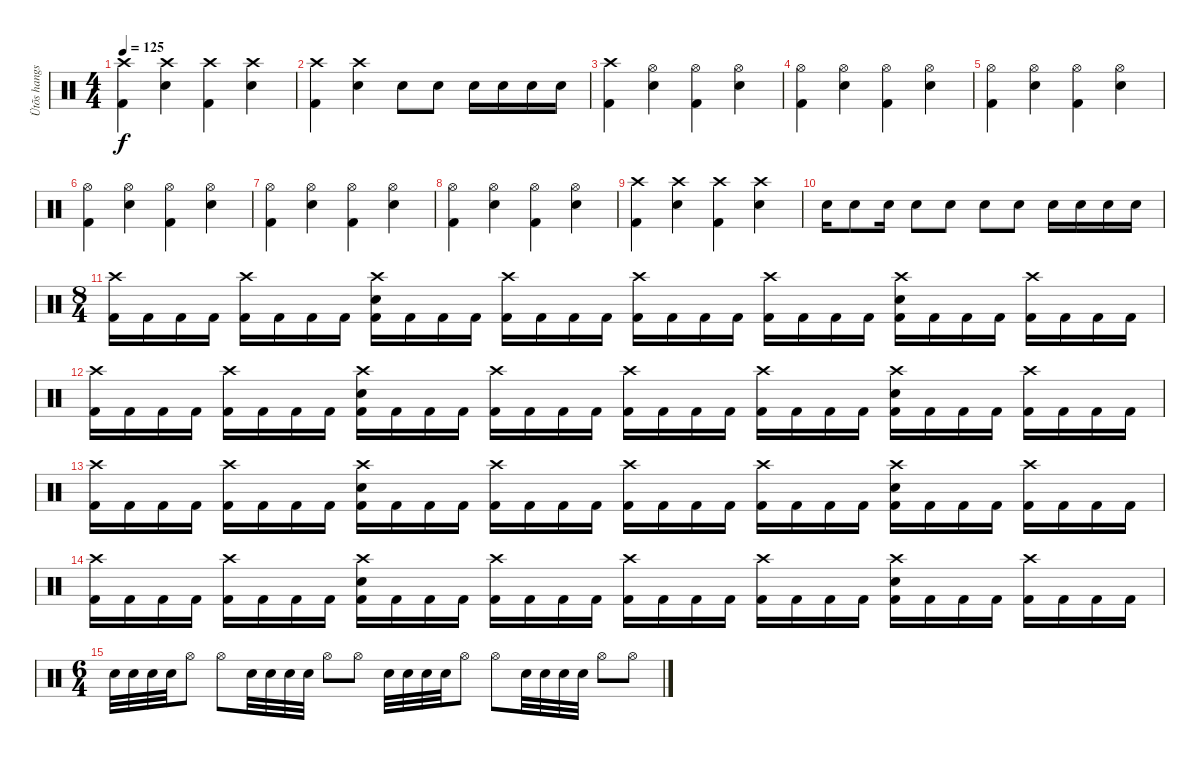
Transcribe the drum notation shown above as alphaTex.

\track ("Ütõs hangszer" "Ütõs hangs") {instrument percussion}
\staff {score}
\articulation defaults
\ts (4 4)
\tempo 125
\clef neutral
\ks c
("Crash high (hit)" "Kick (hit) 2").4{dy f} ("Crash high (hit)" "Electric Snare (hit)").4 ("Crash high (hit)" "Kick (hit) 2").4 ("Crash high (hit)" "Electric Snare (hit)").4 |
("Crash high (hit)" "Kick (hit) 2").4 ("Crash high (hit)" "Electric Snare (hit)").4 "Electric Snare (hit)".8 "Electric Snare (hit)".8 "Electric Snare (hit)".16 "Electric Snare (hit)".16 "Electric Snare (hit)".16 "Electric Snare (hit)".16 |
("Crash high (hit)" "Kick (hit) 2").4 ("Hi-Hat (open)" "Electric Snare (hit)").4 ("Hi-Hat (open)" "Kick (hit) 2").4 ("Hi-Hat (open)" "Electric Snare (hit)").4 |
("Hi-Hat (open)" "Kick (hit) 2").4 ("Hi-Hat (open)" "Electric Snare (hit)").4 ("Hi-Hat (open)" "Kick (hit) 2").4 ("Hi-Hat (open)" "Electric Snare (hit)").4 |
("Hi-Hat (open)" "Kick (hit) 2").4 ("Hi-Hat (open)" "Electric Snare (hit)").4 ("Hi-Hat (open)" "Kick (hit) 2").4 ("Hi-Hat (open)" "Electric Snare (hit)").4 |
("Hi-Hat (open)" "Kick (hit) 2").4 ("Hi-Hat (open)" "Electric Snare (hit)").4 ("Hi-Hat (open)" "Kick (hit) 2").4 ("Hi-Hat (open)" "Electric Snare (hit)").4 |
("Hi-Hat (open)" "Kick (hit) 2").4 ("Hi-Hat (open)" "Electric Snare (hit)").4 ("Hi-Hat (open)" "Kick (hit) 2").4 ("Hi-Hat (open)" "Electric Snare (hit)").4 |
("Hi-Hat (open)" "Kick (hit) 2").4 ("Hi-Hat (open)" "Electric Snare (hit)").4 ("Hi-Hat (open)" "Kick (hit) 2").4 ("Hi-Hat (open)" "Electric Snare (hit)").4 |
("Crash high (hit)" "Kick (hit) 2").4 ("Crash high (hit)" "Electric Snare (hit)").4 ("Crash high (hit)" "Kick (hit) 2").4 ("Crash high (hit)" "Electric Snare (hit)").4 |
"Electric Snare (hit)".16 "Electric Snare (hit)".8 "Electric Snare (hit)".16 "Electric Snare (hit)".8 "Electric Snare (hit)".8 "Electric Snare (hit)".8 "Electric Snare (hit)".8 "Electric Snare (hit)".16 "Electric Snare (hit)".16 "Electric Snare (hit)".16 "Electric Snare (hit)".16 |
\ts (8 4)
("Crash high (hit)" "Kick (hit) 2").16 "Kick (hit) 2".16 "Kick (hit) 2".16 "Kick (hit) 2".16 ("Crash high (hit)" "Kick (hit) 2").16 "Kick (hit) 2".16 "Kick (hit) 2".16 "Kick (hit) 2".16 ("Crash high (hit)" "Electric Snare (hit)" "Kick (hit) 2").16 "Kick (hit) 2".16 "Kick (hit) 2".16 "Kick (hit) 2".16 ("Crash high (hit)" "Kick (hit) 2").16 "Kick (hit) 2".16 "Kick (hit) 2".16 "Kick (hit) 2".16 ("Crash high (hit)" "Kick (hit) 2").16 "Kick (hit) 2".16 "Kick (hit) 2".16 "Kick (hit) 2".16 ("Crash high (hit)" "Kick (hit) 2").16 "Kick (hit) 2".16 "Kick (hit) 2".16 "Kick (hit) 2".16 ("Crash high (hit)" "Electric Snare (hit)" "Kick (hit) 2").16 "Kick (hit) 2".16 "Kick (hit) 2".16 "Kick (hit) 2".16 ("Crash high (hit)" "Kick (hit) 2").16 "Kick (hit) 2".16 "Kick (hit) 2".16 "Kick (hit) 2".16 |
("Crash high (hit)" "Kick (hit) 2").16 "Kick (hit) 2".16 "Kick (hit) 2".16 "Kick (hit) 2".16 ("Crash high (hit)" "Kick (hit) 2").16 "Kick (hit) 2".16 "Kick (hit) 2".16 "Kick (hit) 2".16 ("Crash high (hit)" "Electric Snare (hit)" "Kick (hit) 2").16 "Kick (hit) 2".16 "Kick (hit) 2".16 "Kick (hit) 2".16 ("Crash high (hit)" "Kick (hit) 2").16 "Kick (hit) 2".16 "Kick (hit) 2".16 "Kick (hit) 2".16 ("Crash high (hit)" "Kick (hit) 2").16 "Kick (hit) 2".16 "Kick (hit) 2".16 "Kick (hit) 2".16 ("Crash high (hit)" "Kick (hit) 2").16 "Kick (hit) 2".16 "Kick (hit) 2".16 "Kick (hit) 2".16 ("Crash high (hit)" "Electric Snare (hit)" "Kick (hit) 2").16 "Kick (hit) 2".16 "Kick (hit) 2".16 "Kick (hit) 2".16 ("Crash high (hit)" "Kick (hit) 2").16 "Kick (hit) 2".16 "Kick (hit) 2".16 "Kick (hit) 2".16 |
("Crash high (hit)" "Kick (hit) 2").16 "Kick (hit) 2".16 "Kick (hit) 2".16 "Kick (hit) 2".16 ("Crash high (hit)" "Kick (hit) 2").16 "Kick (hit) 2".16 "Kick (hit) 2".16 "Kick (hit) 2".16 ("Crash high (hit)" "Electric Snare (hit)" "Kick (hit) 2").16 "Kick (hit) 2".16 "Kick (hit) 2".16 "Kick (hit) 2".16 ("Crash high (hit)" "Kick (hit) 2").16 "Kick (hit) 2".16 "Kick (hit) 2".16 "Kick (hit) 2".16 ("Crash high (hit)" "Kick (hit) 2").16 "Kick (hit) 2".16 "Kick (hit) 2".16 "Kick (hit) 2".16 ("Crash high (hit)" "Kick (hit) 2").16 "Kick (hit) 2".16 "Kick (hit) 2".16 "Kick (hit) 2".16 ("Crash high (hit)" "Electric Snare (hit)" "Kick (hit) 2").16 "Kick (hit) 2".16 "Kick (hit) 2".16 "Kick (hit) 2".16 ("Crash high (hit)" "Kick (hit) 2").16 "Kick (hit) 2".16 "Kick (hit) 2".16 "Kick (hit) 2".16 |
("Crash high (hit)" "Kick (hit) 2").16 "Kick (hit) 2".16 "Kick (hit) 2".16 "Kick (hit) 2".16 ("Crash high (hit)" "Kick (hit) 2").16 "Kick (hit) 2".16 "Kick (hit) 2".16 "Kick (hit) 2".16 ("Crash high (hit)" "Electric Snare (hit)" "Kick (hit) 2").16 "Kick (hit) 2".16 "Kick (hit) 2".16 "Kick (hit) 2".16 ("Crash high (hit)" "Kick (hit) 2").16 "Kick (hit) 2".16 "Kick (hit) 2".16 "Kick (hit) 2".16 ("Crash high (hit)" "Kick (hit) 2").16 "Kick (hit) 2".16 "Kick (hit) 2".16 "Kick (hit) 2".16 ("Crash high (hit)" "Kick (hit) 2").16 "Kick (hit) 2".16 "Kick (hit) 2".16 "Kick (hit) 2".16 ("Crash high (hit)" "Electric Snare (hit)" "Kick (hit) 2").16 "Kick (hit) 2".16 "Kick (hit) 2".16 "Kick (hit) 2".16 ("Crash high (hit)" "Kick (hit) 2").16 "Kick (hit) 2".16 "Kick (hit) 2".16 "Kick (hit) 2".16 |
\ts (6 4)
"Electric Snare (hit)".32 "Electric Snare (hit)".32 "Electric Snare (hit)".32 "Electric Snare (hit)".32 "Hi-Hat (open)".8 "Hi-Hat (open)".8 "Electric Snare (hit)".32 "Electric Snare (hit)".32 "Electric Snare (hit)".32 "Electric Snare (hit)".32 "Hi-Hat (open)".8 "Hi-Hat (open)".8 "Electric Snare (hit)".32 "Electric Snare (hit)".32 "Electric Snare (hit)".32 "Electric Snare (hit)".32 "Hi-Hat (open)".8 "Hi-Hat (open)".8 "Electric Snare (hit)".32 "Electric Snare (hit)".32 "Electric Snare (hit)".32 "Electric Snare (hit)".32 "Hi-Hat (open)".8 "Hi-Hat (open)".8
